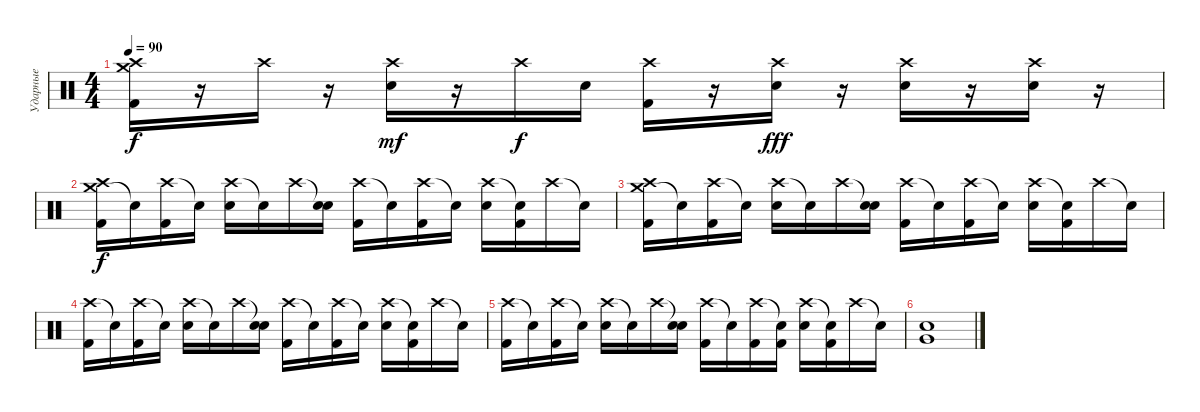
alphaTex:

\track ("Ударные" "Ударные") {instrument percussion}
\staff {score}
\articulation defaults
\ts (4 4)
\tempo 90
\clef neutral
\ks c
("Crash medium (hit)" "Crash high (hit)" "Kick (hit) 2").16{dy f} r.16 "Crash high (hit)".16 r.16 ("Crash high (hit)" "Electric Snare (hit)").16{dy mf} r.16 "Crash high (hit)".16{dy f} "Electric Snare (hit)".16 ("Crash high (hit)" "Kick (hit) 2").16 r.16 ("Crash high (hit)" "Electric Snare (hit)").16{dy fff} r.16 ("Crash high (hit)" "Electric Snare (hit)").16 r.16 ("Crash high (hit)" "Electric Snare (hit)").16 r.16 |
("Crash medium (hit)" "Crash high (hit)" "Kick (hit) 2").16{dy f} "Snare (hit)"{t}.16 ("Crash high (hit)" "Kick (hit) 2").16 "Snare (hit)"{t}.16 ("Crash high (hit)" "Electric Snare (hit)").16 "Snare (hit)"{t}.16 "Crash high (hit)".16 ("Snare (hit)"{t} "Electric Snare (hit)").16 ("Crash high (hit)" "Kick (hit) 2").16 "Snare (hit)"{t}.16 ("Crash high (hit)" "Kick (hit) 2").16 "Snare (hit)"{t}.16 ("Crash high (hit)" "Electric Snare (hit)").16 ("Snare (hit)"{t} "Kick (hit) 2").16 "Crash high (hit)".16 "Snare (hit)"{t}.16 |
("Crash medium (hit)" "Crash high (hit)" "Kick (hit) 2").16 "Snare (hit)"{t}.16 ("Crash high (hit)" "Kick (hit) 2").16 "Snare (hit)"{t}.16 ("Crash high (hit)" "Electric Snare (hit)").16 "Snare (hit)"{t}.16 "Crash high (hit)".16 ("Snare (hit)"{t} "Electric Snare (hit)").16 ("Crash high (hit)" "Kick (hit) 2").16 "Snare (hit)"{t}.16 ("Crash high (hit)" "Kick (hit) 2").16 "Snare (hit)"{t}.16 ("Crash high (hit)" "Electric Snare (hit)").16 ("Snare (hit)"{t} "Kick (hit) 2").16 "Crash high (hit)".16 "Snare (hit)"{t}.16 |
("Crash high (hit)" "Kick (hit) 2").16 "Snare (hit)"{t}.16 ("Crash high (hit)" "Kick (hit) 2").16 "Snare (hit)"{t}.16 ("Crash high (hit)" "Electric Snare (hit)").16 "Snare (hit)"{t}.16 "Crash high (hit)".16 ("Snare (hit)"{t} "Electric Snare (hit)").16 ("Crash high (hit)" "Kick (hit) 2").16 "Snare (hit)"{t}.16 ("Crash high (hit)" "Kick (hit) 2").16 "Snare (hit)"{t}.16 ("Crash high (hit)" "Electric Snare (hit)").16 ("Snare (hit)"{t} "Kick (hit) 2").16 "Crash high (hit)".16 "Snare (hit)"{t}.16 |
("Crash high (hit)" "Kick (hit) 2").16 "Snare (hit)"{t}.16 ("Crash high (hit)" "Kick (hit) 2").16 "Snare (hit)"{t}.16 ("Crash high (hit)" "Electric Snare (hit)").16 "Snare (hit)"{t}.16 "Crash high (hit)".16 ("Snare (hit)"{t} "Electric Snare (hit)").16 ("Crash high (hit)" "Kick (hit) 2").16 "Snare (hit)"{t}.16 ("Crash high (hit)" "Kick (hit) 2").16 ("Snare (hit)"{t} "Kick (hit) 2").16 ("Crash high (hit)" "Electric Snare (hit)").16 ("Snare (hit)"{t} "Kick (hit) 2").16 "Crash high (hit)".16 "Snare (hit)"{t}.16 |
("Very Low Tom (hit)" "Electric Snare (hit)").1
